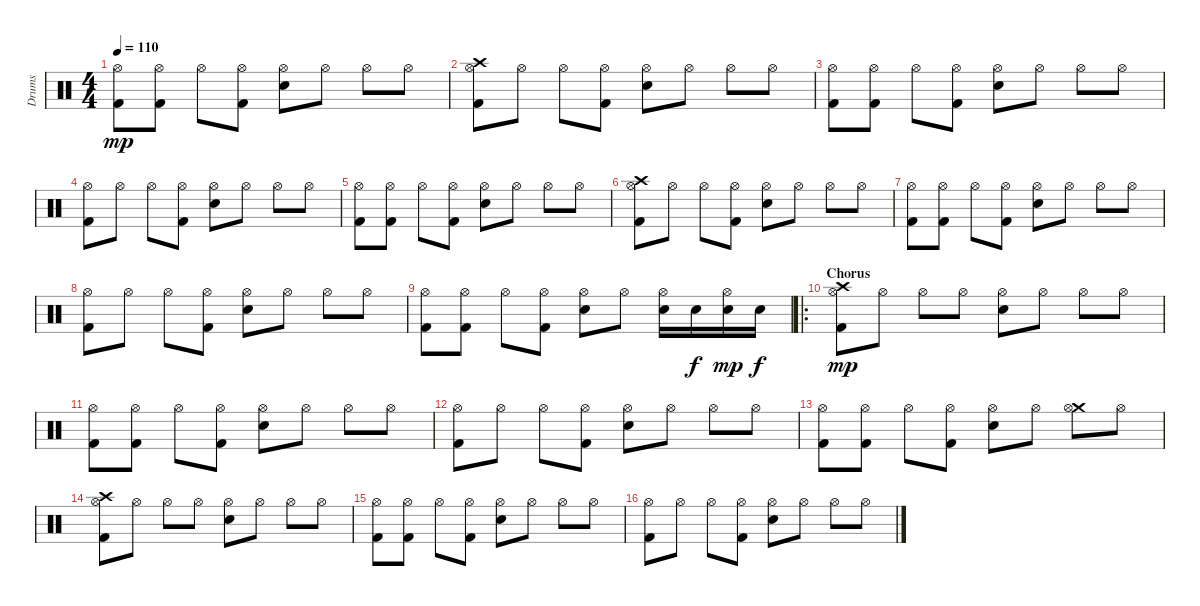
\track ("Drums" "Drums") {instrument percussion}
\staff {score}
\articulation defaults
\ts (4 4)
\tempo 110
\clef neutral
\ks c
("Hi-Hat (open)" "Kick (hit) 2").8{dy mp} ("Hi-Hat (open)" "Kick (hit) 2").8 "Hi-Hat (open)".8 ("Hi-Hat (open)" "Kick (hit) 2").8 ("Hi-Hat (open)" "Snare (hit) 2").8 "Hi-Hat (open)".8 "Hi-Hat (open)".8 "Hi-Hat (open)".8 |
("Crash high (hit)" "Hi-Hat (open)" "Kick (hit) 2").8 "Hi-Hat (open)".8 "Hi-Hat (open)".8 ("Hi-Hat (open)" "Kick (hit) 2").8 ("Hi-Hat (open)" "Snare (hit) 2").8 "Hi-Hat (open)".8 "Hi-Hat (open)".8 "Hi-Hat (open)".8 |
("Hi-Hat (open)" "Kick (hit) 2").8 ("Hi-Hat (open)" "Kick (hit) 2").8 "Hi-Hat (open)".8 ("Hi-Hat (open)" "Kick (hit) 2").8 ("Hi-Hat (open)" "Snare (hit) 2").8 "Hi-Hat (open)".8 "Hi-Hat (open)".8 "Hi-Hat (open)".8 |
("Hi-Hat (open)" "Kick (hit) 2").8 "Hi-Hat (open)".8 "Hi-Hat (open)".8 ("Hi-Hat (open)" "Kick (hit) 2").8 ("Hi-Hat (open)" "Snare (hit) 2").8 "Hi-Hat (open)".8 "Hi-Hat (open)".8 "Hi-Hat (open)".8 |
("Hi-Hat (open)" "Kick (hit) 2").8 ("Hi-Hat (open)" "Kick (hit) 2").8 "Hi-Hat (open)".8 ("Hi-Hat (open)" "Kick (hit) 2").8 ("Hi-Hat (open)" "Snare (hit) 2").8 "Hi-Hat (open)".8 "Hi-Hat (open)".8 "Hi-Hat (open)".8 |
("Crash high (hit)" "Hi-Hat (open)" "Kick (hit) 2").8 "Hi-Hat (open)".8 "Hi-Hat (open)".8 ("Hi-Hat (open)" "Kick (hit) 2").8 ("Hi-Hat (open)" "Snare (hit) 2").8 "Hi-Hat (open)".8 "Hi-Hat (open)".8 "Hi-Hat (open)".8 |
("Hi-Hat (open)" "Kick (hit) 2").8 ("Hi-Hat (open)" "Kick (hit) 2").8 "Hi-Hat (open)".8 ("Hi-Hat (open)" "Kick (hit) 2").8 ("Hi-Hat (open)" "Snare (hit) 2").8 "Hi-Hat (open)".8 "Hi-Hat (open)".8 "Hi-Hat (open)".8 |
("Hi-Hat (open)" "Kick (hit) 2").8 "Hi-Hat (open)".8 "Hi-Hat (open)".8 ("Hi-Hat (open)" "Kick (hit) 2").8 ("Hi-Hat (open)" "Snare (hit) 2").8 "Hi-Hat (open)".8 "Hi-Hat (open)".8 "Hi-Hat (open)".8 |
("Hi-Hat (open)" "Kick (hit) 2").8 ("Hi-Hat (open)" "Kick (hit) 2").8 "Hi-Hat (open)".8 ("Hi-Hat (open)" "Kick (hit) 2").8 ("Hi-Hat (open)" "Snare (hit) 2").8 "Hi-Hat (open)".8 ("Hi-Hat (open)" "Snare (hit) 2").16 "Snare (hit) 2".16{dy f} ("Hi-Hat (open)" "Snare (hit) 2").16{dy mp} "Snare (hit) 2".16{dy f} |
\ro
\section ("" "Chorus")
("Crash high (hit)" "Hi-Hat (open)" "Kick (hit) 2").8{dy mp} "Hi-Hat (open)".8 "Hi-Hat (open)".8 "Hi-Hat (open)".8 ("Hi-Hat (open)" "Snare (hit) 2").8 "Hi-Hat (open)".8 "Hi-Hat (open)".8 "Hi-Hat (open)".8 |
("Hi-Hat (open)" "Kick (hit) 2").8 ("Hi-Hat (open)" "Kick (hit) 2").8 "Hi-Hat (open)".8 ("Hi-Hat (open)" "Kick (hit) 2").8 ("Hi-Hat (open)" "Snare (hit) 2").8 "Hi-Hat (open)".8 "Hi-Hat (open)".8 "Hi-Hat (open)".8 |
("Hi-Hat (open)" "Kick (hit) 2").8 "Hi-Hat (open)".8 "Hi-Hat (open)".8 ("Hi-Hat (open)" "Kick (hit) 2").8 ("Hi-Hat (open)" "Snare (hit) 2").8 "Hi-Hat (open)".8 "Hi-Hat (open)".8 "Hi-Hat (open)".8 |
("Hi-Hat (open)" "Kick (hit) 2").8 ("Hi-Hat (open)" "Kick (hit) 2").8 "Hi-Hat (open)".8 ("Hi-Hat (open)" "Kick (hit) 2").8 ("Hi-Hat (open)" "Snare (hit) 2").8 "Hi-Hat (open)".8 ("Crash medium (hit)" "Hi-Hat (open)").8 "Hi-Hat (open)".8 |
("Crash high (hit)" "Hi-Hat (open)" "Kick (hit) 2").8 "Hi-Hat (open)".8 "Hi-Hat (open)".8 "Hi-Hat (open)".8 ("Hi-Hat (open)" "Snare (hit) 2").8 "Hi-Hat (open)".8 "Hi-Hat (open)".8 "Hi-Hat (open)".8 |
("Hi-Hat (open)" "Kick (hit) 2").8 ("Hi-Hat (open)" "Kick (hit) 2").8 "Hi-Hat (open)".8 ("Hi-Hat (open)" "Kick (hit) 2").8 ("Hi-Hat (open)" "Snare (hit) 2").8 "Hi-Hat (open)".8 "Hi-Hat (open)".8 "Hi-Hat (open)".8 |
("Hi-Hat (open)" "Kick (hit) 2").8 "Hi-Hat (open)".8 "Hi-Hat (open)".8 ("Hi-Hat (open)" "Kick (hit) 2").8 ("Hi-Hat (open)" "Snare (hit) 2").8 "Hi-Hat (open)".8 "Hi-Hat (open)".8 "Hi-Hat (open)".8
